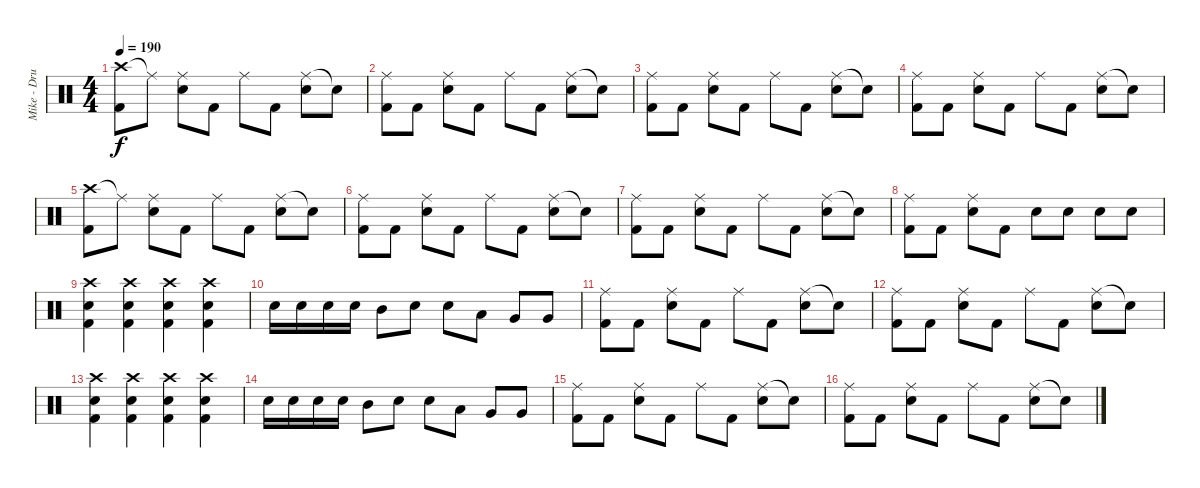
\track ("Mike - Drums" "Mike - Dru") {instrument percussion}
\staff {score}
\articulation defaults
\ts (4 4)
\tempo 190
\clef neutral
\ks c
("Crash high (hit)" "Kick (hit) 2").8{dy f} "Ride (middle)"{t}.8 ("Ride (middle)" "Snare (hit) 2").8 "Kick (hit) 2".8 "Ride (middle)".8 "Kick (hit) 2".8 ("Ride (middle)" "Snare (hit) 2").8 "Snare (hit)"{t}.8 |
("Ride (middle)" "Kick (hit) 2").8 "Kick (hit) 2".8 ("Ride (middle)" "Snare (hit) 2").8 "Kick (hit) 2".8 "Ride (middle)".8 "Kick (hit) 2".8 ("Ride (middle)" "Snare (hit) 2").8 "Snare (hit)"{t}.8 |
("Ride (middle)" "Kick (hit) 2").8 "Kick (hit) 2".8 ("Ride (middle)" "Snare (hit) 2").8 "Kick (hit) 2".8 "Ride (middle)".8 "Kick (hit) 2".8 ("Ride (middle)" "Snare (hit) 2").8 "Snare (hit)"{t}.8 |
("Ride (middle)" "Kick (hit) 2").8 "Kick (hit) 2".8 ("Ride (middle)" "Snare (hit) 2").8 "Kick (hit) 2".8 "Ride (middle)".8 "Kick (hit) 2".8 ("Ride (middle)" "Snare (hit) 2").8 "Snare (hit)"{t}.8 |
("Crash high (hit)" "Kick (hit) 2").8 "Ride (middle)"{t}.8 ("Ride (middle)" "Snare (hit) 2").8 "Kick (hit) 2".8 "Ride (middle)".8 "Kick (hit) 2".8 ("Ride (middle)" "Snare (hit) 2").8 "Snare (hit)"{t}.8 |
("Ride (middle)" "Kick (hit) 2").8 "Kick (hit) 2".8 ("Ride (middle)" "Snare (hit) 2").8 "Kick (hit) 2".8 "Ride (middle)".8 "Kick (hit) 2".8 ("Ride (middle)" "Snare (hit) 2").8 "Snare (hit)"{t}.8 |
("Ride (middle)" "Kick (hit) 2").8 "Kick (hit) 2".8 ("Ride (middle)" "Snare (hit) 2").8 "Kick (hit) 2".8 "Ride (middle)".8 "Kick (hit) 2".8 ("Ride (middle)" "Snare (hit) 2").8 "Snare (hit)"{t}.8 |
("Ride (middle)" "Kick (hit) 2").8 "Kick (hit) 2".8 ("Ride (middle)" "Snare (hit) 2").8 "Kick (hit) 2".8 "Snare (hit) 2".8 "Snare (hit) 2".8 "Snare (hit) 2".8 "Snare (hit) 2".8 |
("Crash high (hit)" "Snare (hit) 2" "Kick (hit) 2").4 ("Crash high (hit)" "Snare (hit) 2" "Kick (hit) 2").4 ("Crash high (hit)" "Snare (hit) 2" "Kick (hit) 2").4 ("Crash high (hit)" "Snare (hit) 2" "Kick (hit) 2").4 |
"Snare (hit) 2".16 "Snare (hit) 2".16 "Snare (hit) 2".16 "Snare (hit) 2".16 "Mid Tom (hit)".8 "Snare (hit) 2".8 "Snare (hit) 2".8 "Low Tom (hit)".8 "Very Low Tom (hit)".8 "Very Low Tom (hit)".8 |
("Ride (middle)" "Kick (hit) 2").8 "Kick (hit) 2".8 ("Ride (middle)" "Snare (hit) 2").8 "Kick (hit) 2".8 "Ride (middle)".8 "Kick (hit) 2".8 ("Ride (middle)" "Snare (hit) 2").8 "Snare (hit)"{t}.8 |
("Ride (middle)" "Kick (hit) 2").8 "Kick (hit) 2".8 ("Ride (middle)" "Snare (hit) 2").8 "Kick (hit) 2".8 "Ride (middle)".8 "Kick (hit) 2".8 ("Ride (middle)" "Snare (hit) 2").8 "Snare (hit)"{t}.8 |
("Crash high (hit)" "Snare (hit) 2" "Kick (hit) 2").4 ("Crash high (hit)" "Snare (hit) 2" "Kick (hit) 2").4 ("Crash high (hit)" "Snare (hit) 2" "Kick (hit) 2").4 ("Crash high (hit)" "Snare (hit) 2" "Kick (hit) 2").4 |
"Snare (hit) 2".16 "Snare (hit) 2".16 "Snare (hit) 2".16 "Snare (hit) 2".16 "Mid Tom (hit)".8 "Snare (hit) 2".8 "Snare (hit) 2".8 "Low Tom (hit)".8 "Very Low Tom (hit)".8 "Very Low Tom (hit)".8 |
("Ride (middle)" "Kick (hit) 2").8 "Kick (hit) 2".8 ("Ride (middle)" "Snare (hit) 2").8 "Kick (hit) 2".8 "Ride (middle)".8 "Kick (hit) 2".8 ("Ride (middle)" "Snare (hit) 2").8 "Snare (hit)"{t}.8 |
("Ride (middle)" "Kick (hit) 2").8 "Kick (hit) 2".8 ("Ride (middle)" "Snare (hit) 2").8 "Kick (hit) 2".8 "Ride (middle)".8 "Kick (hit) 2".8 ("Ride (middle)" "Snare (hit) 2").8 "Snare (hit)"{t}.8
